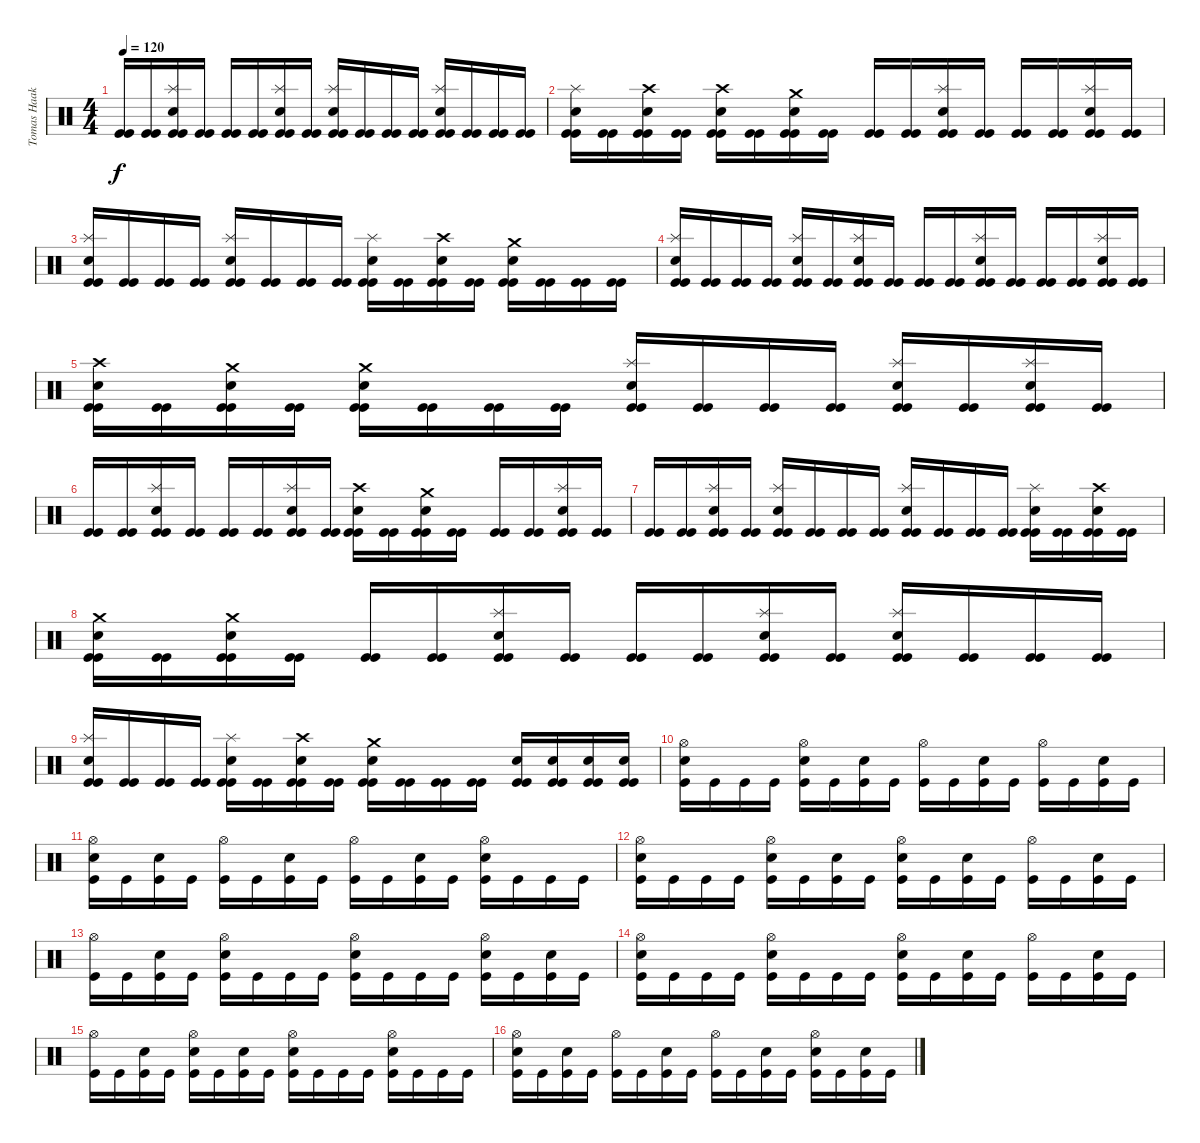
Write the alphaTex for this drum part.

\track ("Tomas Haake" "Tomas Haak") {instrument percussion}
\staff {score}
\articulation defaults
\ts (4 4)
\tempo 120
\clef neutral
\ks c
("Kick (hit)" "Kick (hit)").16{dy f} ("Kick (hit)" "Kick (hit)").16 ("Splash (hit)" "Electric Snare (hit)" "Kick (hit)" "Kick (hit)").16 ("Kick (hit)" "Kick (hit)").16 ("Kick (hit)" "Kick (hit)").16 ("Kick (hit)" "Kick (hit)").16 ("Splash (hit)" "Electric Snare (hit)" "Kick (hit)" "Kick (hit)").16 ("Kick (hit)" "Kick (hit)").16 ("Splash (hit)" "Electric Snare (hit)" "Kick (hit)" "Kick (hit)").16 ("Kick (hit)" "Kick (hit)").16 ("Kick (hit)" "Kick (hit)").16 ("Kick (hit)" "Kick (hit)").16 ("Splash (hit)" "Electric Snare (hit)" "Kick (hit)" "Kick (hit)").16 ("Kick (hit)" "Kick (hit)").16 ("Kick (hit)" "Kick (hit)").16 ("Kick (hit)" "Kick (hit)").16 |
("Splash (hit)" "Electric Snare (hit)" "Kick (hit)" "Kick (hit)").16 ("Kick (hit)" "Kick (hit)").16 ("Crash high (hit)" "Electric Snare (hit)" "Kick (hit)" "Kick (hit)").16 ("Kick (hit)" "Kick (hit)").16 ("Crash high (hit)" "Electric Snare (hit)" "Kick (hit)" "Kick (hit)").16 ("Kick (hit)" "Kick (hit)").16 ("Crash medium (hit)" "Electric Snare (hit)" "Kick (hit)" "Kick (hit)").16 ("Kick (hit)" "Kick (hit)").16 ("Kick (hit)" "Kick (hit)").16 ("Kick (hit)" "Kick (hit)").16 ("Splash (hit)" "Electric Snare (hit)" "Kick (hit)" "Kick (hit)").16 ("Kick (hit)" "Kick (hit)").16 ("Kick (hit)" "Kick (hit)").16 ("Kick (hit)" "Kick (hit)").16 ("Splash (hit)" "Electric Snare (hit)" "Kick (hit)" "Kick (hit)").16 ("Kick (hit)" "Kick (hit)").16 |
("Splash (hit)" "Electric Snare (hit)" "Kick (hit)" "Kick (hit)").16 ("Kick (hit)" "Kick (hit)").16 ("Kick (hit)" "Kick (hit)").16 ("Kick (hit)" "Kick (hit)").16 ("Splash (hit)" "Electric Snare (hit)" "Kick (hit)" "Kick (hit)").16 ("Kick (hit)" "Kick (hit)").16 ("Kick (hit)" "Kick (hit)").16 ("Kick (hit)" "Kick (hit)").16 ("Splash (hit)" "Electric Snare (hit)" "Kick (hit)" "Kick (hit)").16 ("Kick (hit)" "Kick (hit)").16 ("Crash high (hit)" "Electric Snare (hit)" "Kick (hit)" "Kick (hit)").16 ("Kick (hit)" "Kick (hit)").16 ("Crash medium (hit)" "Electric Snare (hit)" "Kick (hit)" "Kick (hit)").16 ("Kick (hit)" "Kick (hit)").16 ("Kick (hit)" "Kick (hit)").16 ("Kick (hit)" "Kick (hit)").16 |
("Splash (hit)" "Electric Snare (hit)" "Kick (hit)" "Kick (hit)").16 ("Kick (hit)" "Kick (hit)").16 ("Kick (hit)" "Kick (hit)").16 ("Kick (hit)" "Kick (hit)").16 ("Splash (hit)" "Electric Snare (hit)" "Kick (hit)" "Kick (hit)").16 ("Kick (hit)" "Kick (hit)").16 ("Splash (hit)" "Electric Snare (hit)" "Kick (hit)" "Kick (hit)").16 ("Kick (hit)" "Kick (hit)").16 ("Kick (hit)" "Kick (hit)").16 ("Kick (hit)" "Kick (hit)").16 ("Splash (hit)" "Electric Snare (hit)" "Kick (hit)" "Kick (hit)").16 ("Kick (hit)" "Kick (hit)").16 ("Kick (hit)" "Kick (hit)").16 ("Kick (hit)" "Kick (hit)").16 ("Splash (hit)" "Electric Snare (hit)" "Kick (hit)" "Kick (hit)").16 ("Kick (hit)" "Kick (hit)").16 |
("Crash high (hit)" "Electric Snare (hit)" "Kick (hit)" "Kick (hit)").16 ("Kick (hit)" "Kick (hit)").16 ("Crash medium (hit)" "Electric Snare (hit)" "Kick (hit)" "Kick (hit)").16 ("Kick (hit)" "Kick (hit)").16 ("Crash medium (hit)" "Electric Snare (hit)" "Kick (hit)" "Kick (hit)").16 ("Kick (hit)" "Kick (hit)").16 ("Kick (hit)" "Kick (hit)").16 ("Kick (hit)" "Kick (hit)").16 ("Splash (hit)" "Electric Snare (hit)" "Kick (hit)" "Kick (hit)").16 ("Kick (hit)" "Kick (hit)").16 ("Kick (hit)" "Kick (hit)").16 ("Kick (hit)" "Kick (hit)").16 ("Splash (hit)" "Electric Snare (hit)" "Kick (hit)" "Kick (hit)").16 ("Kick (hit)" "Kick (hit)").16 ("Splash (hit)" "Electric Snare (hit)" "Kick (hit)" "Kick (hit)").16 ("Kick (hit)" "Kick (hit)").16 |
("Kick (hit)" "Kick (hit)").16 ("Kick (hit)" "Kick (hit)").16 ("Splash (hit)" "Electric Snare (hit)" "Kick (hit)" "Kick (hit)").16 ("Kick (hit)" "Kick (hit)").16 ("Kick (hit)" "Kick (hit)").16 ("Kick (hit)" "Kick (hit)").16 ("Splash (hit)" "Electric Snare (hit)" "Kick (hit)" "Kick (hit)").16 ("Kick (hit)" "Kick (hit)").16 ("Crash high (hit)" "Electric Snare (hit)" "Kick (hit)" "Kick (hit)").16 ("Kick (hit)" "Kick (hit)").16 ("Crash medium (hit)" "Electric Snare (hit)" "Kick (hit)" "Kick (hit)").16 ("Kick (hit)" "Kick (hit)").16 ("Kick (hit)" "Kick (hit)").16 ("Kick (hit)" "Kick (hit)").16 ("Splash (hit)" "Electric Snare (hit)" "Kick (hit)" "Kick (hit)").16 ("Kick (hit)" "Kick (hit)").16 |
("Kick (hit)" "Kick (hit)").16 ("Kick (hit)" "Kick (hit)").16 ("Splash (hit)" "Electric Snare (hit)" "Kick (hit)" "Kick (hit)").16 ("Kick (hit)" "Kick (hit)").16 ("Splash (hit)" "Electric Snare (hit)" "Kick (hit)" "Kick (hit)").16 ("Kick (hit)" "Kick (hit)").16 ("Kick (hit)" "Kick (hit)").16 ("Kick (hit)" "Kick (hit)").16 ("Splash (hit)" "Electric Snare (hit)" "Kick (hit)" "Kick (hit)").16 ("Kick (hit)" "Kick (hit)").16 ("Kick (hit)" "Kick (hit)").16 ("Kick (hit)" "Kick (hit)").16 ("Splash (hit)" "Electric Snare (hit)" "Kick (hit)" "Kick (hit)").16 ("Kick (hit)" "Kick (hit)").16 ("Crash high (hit)" "Electric Snare (hit)" "Kick (hit)" "Kick (hit)").16 ("Kick (hit)" "Kick (hit)").16 |
("Crash medium (hit)" "Electric Snare (hit)" "Kick (hit)" "Kick (hit)").16 ("Kick (hit)" "Kick (hit)").16 ("Crash medium (hit)" "Electric Snare (hit)" "Kick (hit)" "Kick (hit)").16 ("Kick (hit)" "Kick (hit)").16 ("Kick (hit)" "Kick (hit)").16 ("Kick (hit)" "Kick (hit)").16 ("Splash (hit)" "Electric Snare (hit)" "Kick (hit)" "Kick (hit)").16 ("Kick (hit)" "Kick (hit)").16 ("Kick (hit)" "Kick (hit)").16 ("Kick (hit)" "Kick (hit)").16 ("Splash (hit)" "Electric Snare (hit)" "Kick (hit)" "Kick (hit)").16 ("Kick (hit)" "Kick (hit)").16 ("Splash (hit)" "Electric Snare (hit)" "Kick (hit)" "Kick (hit)").16 ("Kick (hit)" "Kick (hit)").16 ("Kick (hit)" "Kick (hit)").16 ("Kick (hit)" "Kick (hit)").16 |
("Splash (hit)" "Electric Snare (hit)" "Kick (hit)" "Kick (hit)").16 ("Kick (hit)" "Kick (hit)").16 ("Kick (hit)" "Kick (hit)").16 ("Kick (hit)" "Kick (hit)").16 ("Splash (hit)" "Electric Snare (hit)" "Kick (hit)" "Kick (hit)").16 ("Kick (hit)" "Kick (hit)").16 ("Crash high (hit)" "Electric Snare (hit)" "Kick (hit)" "Kick (hit)").16 ("Kick (hit)" "Kick (hit)").16 ("Crash medium (hit)" "Electric Snare (hit)" "Kick (hit)" "Kick (hit)").16 ("Kick (hit)" "Kick (hit)").16 ("Kick (hit)" "Kick (hit)").16 ("Kick (hit)" "Kick (hit)").16 ("Electric Snare (hit)" "Kick (hit)" "Kick (hit)").16 ("Electric Snare (hit)" "Kick (hit)" "Kick (hit)").16 ("Electric Snare (hit)" "Kick (hit)" "Kick (hit)").16 ("Electric Snare (hit)" "Kick (hit)" "Kick (hit)").16 |
("Hi-Hat (open)" "Electric Snare (hit)" "Kick (hit)").16 "Kick (hit)".16 "Kick (hit)".16 "Kick (hit)".16 ("Hi-Hat (open)" "Electric Snare (hit)" "Kick (hit)").16 "Kick (hit)".16 ("Electric Snare (hit)" "Kick (hit)").16 "Kick (hit)".16 ("Hi-Hat (open)" "Kick (hit)").16 "Kick (hit)".16 ("Electric Snare (hit)" "Kick (hit)").16 "Kick (hit)".16 ("Hi-Hat (open)" "Kick (hit)").16 "Kick (hit)".16 ("Electric Snare (hit)" "Kick (hit)").16 "Kick (hit)".16 |
("Hi-Hat (open)" "Electric Snare (hit)" "Kick (hit)").16 "Kick (hit)".16 ("Electric Snare (hit)" "Kick (hit)").16 "Kick (hit)".16 ("Hi-Hat (open)" "Kick (hit)").16 "Kick (hit)".16 ("Electric Snare (hit)" "Kick (hit)").16 "Kick (hit)".16 ("Hi-Hat (open)" "Kick (hit)").16 "Kick (hit)".16 ("Electric Snare (hit)" "Kick (hit)").16 "Kick (hit)".16 ("Hi-Hat (open)" "Electric Snare (hit)" "Kick (hit)").16 "Kick (hit)".16 "Kick (hit)".16 "Kick (hit)".16 |
("Hi-Hat (open)" "Electric Snare (hit)" "Kick (hit)").16 "Kick (hit)".16 "Kick (hit)".16 "Kick (hit)".16 ("Hi-Hat (open)" "Electric Snare (hit)" "Kick (hit)").16 "Kick (hit)".16 ("Electric Snare (hit)" "Kick (hit)").16 "Kick (hit)".16 ("Hi-Hat (open)" "Electric Snare (hit)" "Kick (hit)").16 "Kick (hit)".16 ("Electric Snare (hit)" "Kick (hit)").16 "Kick (hit)".16 ("Hi-Hat (open)" "Kick (hit)").16 "Kick (hit)".16 ("Electric Snare (hit)" "Kick (hit)").16 "Kick (hit)".16 |
("Hi-Hat (open)" "Kick (hit)").16 "Kick (hit)".16 ("Electric Snare (hit)" "Kick (hit)").16 "Kick (hit)".16 ("Hi-Hat (open)" "Electric Snare (hit)" "Kick (hit)").16 "Kick (hit)".16 "Kick (hit)".16 "Kick (hit)".16 ("Hi-Hat (open)" "Electric Snare (hit)" "Kick (hit)").16 "Kick (hit)".16 "Kick (hit)".16 "Kick (hit)".16 ("Hi-Hat (open)" "Electric Snare (hit)" "Kick (hit)").16 "Kick (hit)".16 ("Electric Snare (hit)" "Kick (hit)").16 "Kick (hit)".16 |
("Hi-Hat (open)" "Electric Snare (hit)" "Kick (hit)").16 "Kick (hit)".16 "Kick (hit)".16 "Kick (hit)".16 ("Hi-Hat (open)" "Electric Snare (hit)" "Kick (hit)").16 "Kick (hit)".16 "Kick (hit)".16 "Kick (hit)".16 ("Hi-Hat (open)" "Electric Snare (hit)" "Kick (hit)").16 "Kick (hit)".16 ("Electric Snare (hit)" "Kick (hit)").16 "Kick (hit)".16 ("Hi-Hat (open)" "Kick (hit)").16 "Kick (hit)".16 ("Electric Snare (hit)" "Kick (hit)").16 "Kick (hit)".16 |
("Hi-Hat (open)" "Kick (hit)").16 "Kick (hit)".16 ("Electric Snare (hit)" "Kick (hit)").16 "Kick (hit)".16 ("Hi-Hat (open)" "Electric Snare (hit)" "Kick (hit)").16 "Kick (hit)".16 ("Electric Snare (hit)" "Kick (hit)").16 "Kick (hit)".16 ("Hi-Hat (open)" "Electric Snare (hit)" "Kick (hit)").16 "Kick (hit)".16 "Kick (hit)".16 "Kick (hit)".16 ("Hi-Hat (open)" "Electric Snare (hit)" "Kick (hit)").16 "Kick (hit)".16 "Kick (hit)".16 "Kick (hit)".16 |
("Hi-Hat (open)" "Electric Snare (hit)" "Kick (hit)").16 "Kick (hit)".16 ("Electric Snare (hit)" "Kick (hit)").16 "Kick (hit)".16 ("Hi-Hat (open)" "Kick (hit)").16 "Kick (hit)".16 ("Electric Snare (hit)" "Kick (hit)").16 "Kick (hit)".16 ("Hi-Hat (open)" "Kick (hit)").16 "Kick (hit)".16 ("Electric Snare (hit)" "Kick (hit)").16 "Kick (hit)".16 ("Hi-Hat (open)" "Electric Snare (hit)" "Kick (hit)").16 "Kick (hit)".16 ("Electric Snare (hit)" "Kick (hit)").16 "Kick (hit)".16
